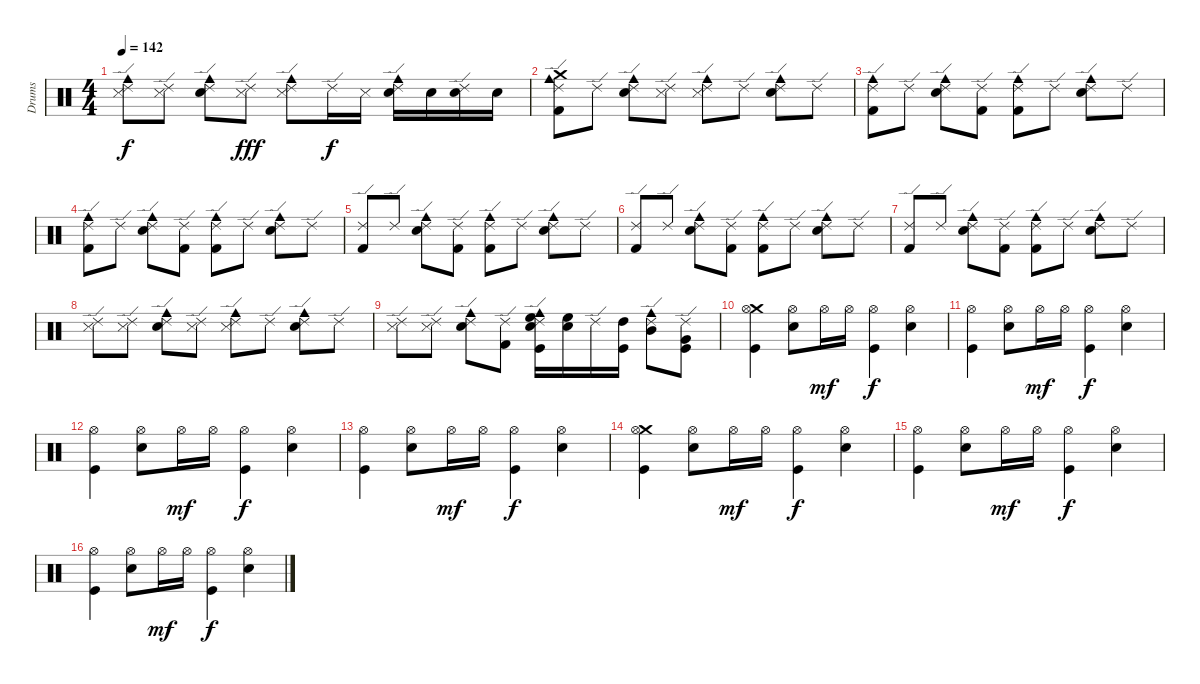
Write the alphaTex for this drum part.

\track ("Drums" "Drums") {instrument percussion}
\staff {score}
\articulation defaults
\ts (4 4)
\tempo 142
\clef neutral
\ks c
("Metronome (hit)" "Cowbell medium (hit)" "Ride (edge) 2").8{dy f} ("Metronome (hit)" "Ride (edge) 2").8 ("Cowbell medium (hit)" "Ride (edge) 2" "Snare (hit) 2").8 ("Ride (edge) 2" "Metronome (hit)").8{dy fff} ("Cowbell medium (hit)" "Ride (edge) 2" "Metronome (hit)").8 "Ride (edge) 2".16{dy f} "Metronome (hit)".16 ("Snare (hit) 2" "Cowbell medium (hit)" "Ride (edge) 2").16 "Snare (hit) 2".16 ("Snare (hit) 2" "Ride (edge) 2").16 "Snare (hit) 2".16 |
("Crash medium (hit)" "Cowbell medium (hit)" "Ride (edge) 2" "Kick (hit) 2").8 "Ride (edge) 2".8 ("Cowbell medium (hit)" "Ride (edge) 2" "Snare (hit) 2").8 ("Ride (edge) 2" "Metronome (hit)").8 ("Cowbell medium (hit)" "Ride (edge) 2" "Metronome (hit)").8 "Ride (edge) 2".8 ("Cowbell medium (hit)" "Ride (edge) 2" "Snare (hit) 2").8 "Ride (edge) 2".8 |
("Cowbell medium (hit)" "Ride (edge) 2" "Kick (hit) 2").8 "Ride (edge) 2".8 ("Cowbell medium (hit)" "Ride (edge) 2" "Snare (hit) 2").8 ("Ride (edge) 2" "Kick (hit) 2").8 ("Cowbell medium (hit)" "Ride (edge) 2" "Kick (hit) 2").8 "Ride (edge) 2".8 ("Cowbell medium (hit)" "Ride (edge) 2" "Snare (hit) 2").8 "Ride (edge) 2".8 |
("Cowbell medium (hit)" "Ride (edge) 2" "Kick (hit) 2").8 "Ride (edge) 2".8 ("Cowbell medium (hit)" "Ride (edge) 2" "Snare (hit) 2").8 ("Ride (edge) 2" "Kick (hit) 2").8 ("Cowbell medium (hit)" "Ride (edge) 2" "Kick (hit) 2").8 "Ride (edge) 2".8 ("Cowbell medium (hit)" "Ride (edge) 2" "Snare (hit) 2").8 "Ride (edge) 2".8 |
("Ride (edge) 2" "Kick (hit) 2").8 "Ride (edge) 2".8 ("Cowbell medium (hit)" "Ride (edge) 2" "Snare (hit) 2").8 ("Ride (edge) 2" "Kick (hit) 2").8 ("Cowbell medium (hit)" "Ride (edge) 2" "Kick (hit) 2").8 "Ride (edge) 2".8 ("Cowbell medium (hit)" "Ride (edge) 2" "Snare (hit) 2").8 "Ride (edge) 2".8 |
("Ride (edge) 2" "Kick (hit) 2").8 "Ride (edge) 2".8 ("Cowbell medium (hit)" "Ride (edge) 2" "Snare (hit) 2").8 ("Ride (edge) 2" "Kick (hit) 2").8 ("Cowbell medium (hit)" "Ride (edge) 2" "Kick (hit) 2").8 "Ride (edge) 2".8 ("Cowbell medium (hit)" "Ride (edge) 2" "Snare (hit) 2").8 "Ride (edge) 2".8 |
("Ride (edge) 2" "Kick (hit) 2").8 "Ride (edge) 2".8 ("Cowbell medium (hit)" "Ride (edge) 2" "Snare (hit) 2").8 ("Ride (edge) 2" "Kick (hit) 2").8 ("Cowbell medium (hit)" "Ride (edge) 2" "Kick (hit) 2").8 "Ride (edge) 2".8 ("Cowbell medium (hit)" "Ride (edge) 2" "Snare (hit) 2").8 "Ride (edge) 2".8 |
("Metronome (hit)" "Ride (edge) 2").8 ("Metronome (hit)" "Ride (edge) 2").8 ("Cowbell medium (hit)" "Ride (edge) 2" "Snare (hit) 2").8 ("Ride (edge) 2" "Metronome (hit)").8 ("Cowbell medium (hit)" "Ride (edge) 2" "Metronome (hit)").8 "Ride (edge) 2".8 ("Cowbell medium (hit)" "Ride (edge) 2" "Snare (hit) 2").8 "Ride (edge) 2".8 |
("Metronome (hit)" "Ride (edge) 2").8 ("Metronome (hit)" "Ride (edge) 2").8 ("Cowbell medium (hit)" "Ride (edge) 2" "Snare (hit) 2").8 ("Ride (edge) 2" "Kick (hit) 2").8 ("High Floor Tom (hit)" "Kick (hit)" "Snare (hit) 2" "Cowbell medium (hit)" "Ride (edge) 2").16 ("High Floor Tom (hit)" "Snare (hit) 2").16 "Ride (edge) 2".16 ("Kick (hit)" "High Tom (hit)").16 ("Mid Tom (hit)" "Cowbell medium (hit)" "Ride (edge) 2").8 ("Kick (hit)" "Very Low Tom (hit)" "Ride (edge) 2").8 |
("Crash medium (hit)" "Hi-Hat (open)" "Kick (hit)").4 ("Snare (hit) 2" "Hi-Hat (open)").8 "Hi-Hat (open)".16{dy mf} "Hi-Hat (open)".16 ("Kick (hit)" "Hi-Hat (open)").4{dy f} ("Snare (hit) 2" "Hi-Hat (open)").4 |
("Hi-Hat (open)" "Kick (hit)").4 ("Snare (hit) 2" "Hi-Hat (open)").8 "Hi-Hat (open)".16{dy mf} "Hi-Hat (open)".16 ("Kick (hit)" "Hi-Hat (open)").4{dy f} ("Snare (hit) 2" "Hi-Hat (open)").4 |
("Hi-Hat (open)" "Kick (hit)").4 ("Snare (hit) 2" "Hi-Hat (open)").8 "Hi-Hat (open)".16{dy mf} "Hi-Hat (open)".16 ("Kick (hit)" "Hi-Hat (open)").4{dy f} ("Snare (hit) 2" "Hi-Hat (open)").4 |
("Hi-Hat (open)" "Kick (hit)").4 ("Snare (hit) 2" "Hi-Hat (open)").8 "Hi-Hat (open)".16{dy mf} "Hi-Hat (open)".16 ("Kick (hit)" "Hi-Hat (open)").4{dy f} ("Snare (hit) 2" "Hi-Hat (open)").4 |
("Crash medium (hit)" "Hi-Hat (open)" "Kick (hit)").4 ("Snare (hit) 2" "Hi-Hat (open)").8 "Hi-Hat (open)".16{dy mf} "Hi-Hat (open)".16 ("Kick (hit)" "Hi-Hat (open)").4{dy f} ("Snare (hit) 2" "Hi-Hat (open)").4 |
("Hi-Hat (open)" "Kick (hit)").4 ("Snare (hit) 2" "Hi-Hat (open)").8 "Hi-Hat (open)".16{dy mf} "Hi-Hat (open)".16 ("Kick (hit)" "Hi-Hat (open)").4{dy f} ("Snare (hit) 2" "Hi-Hat (open)").4 |
("Hi-Hat (open)" "Kick (hit)").4 ("Snare (hit) 2" "Hi-Hat (open)").8 "Hi-Hat (open)".16{dy mf} "Hi-Hat (open)".16 ("Kick (hit)" "Hi-Hat (open)").4{dy f} ("Snare (hit) 2" "Hi-Hat (open)").4
